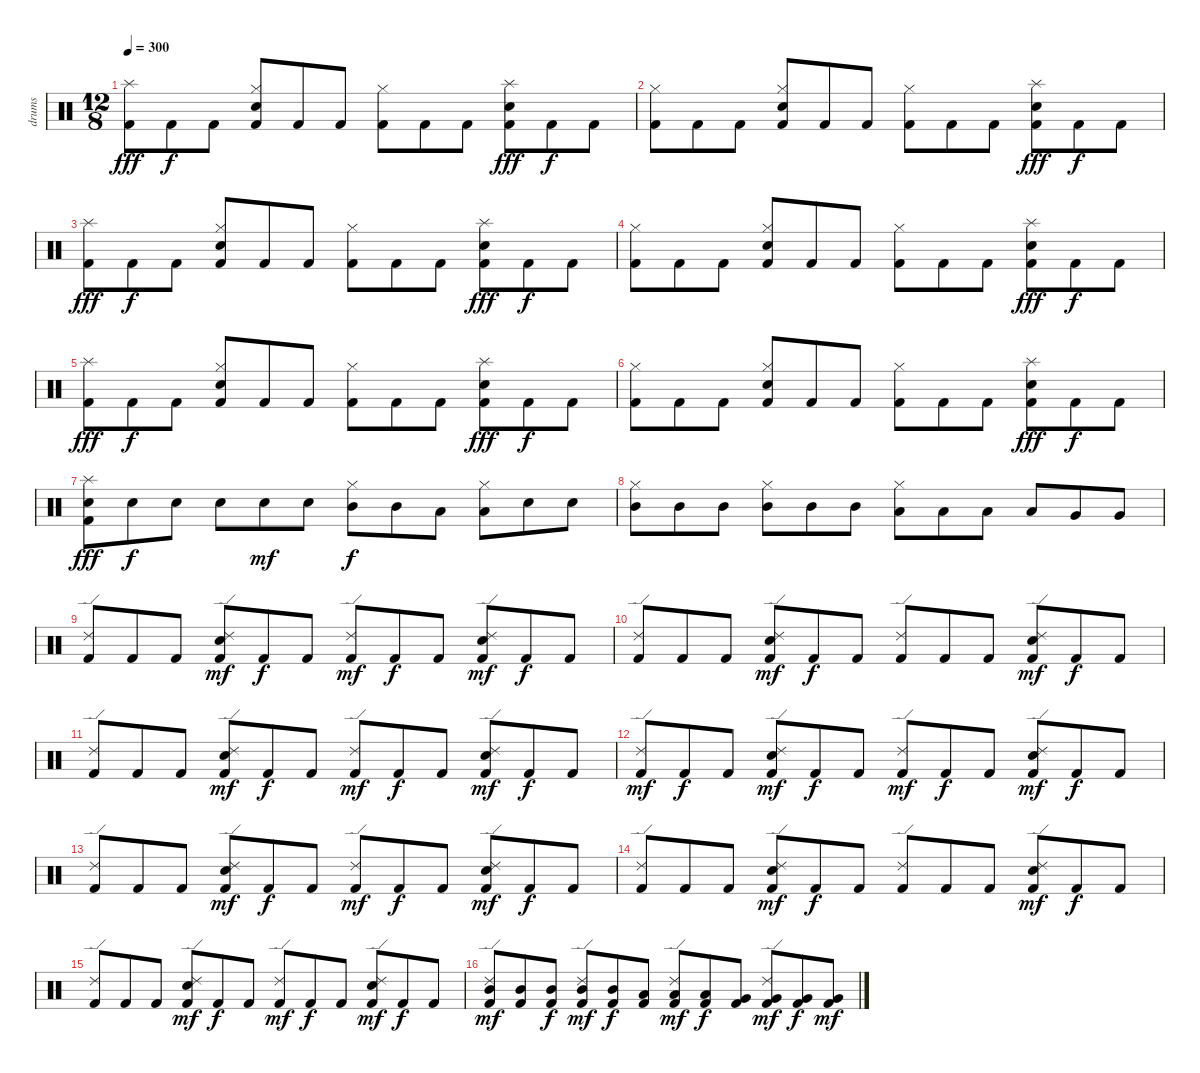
\track ("drums" "drums") {instrument percussion}
\staff {score}
\articulation defaults
\ts (12 8)
\tempo 300
\clef neutral
\ks c
("Splash (hit)" "Kick (hit) 2").8{dy fff} "Kick (hit) 2".8{dy f} "Kick (hit) 2".8 ("Hi-Hat (closed)" "Snare (hit) 2" "Kick (hit) 2").8 "Kick (hit) 2".8 "Kick (hit) 2".8 ("Hi-Hat (closed)" "Kick (hit) 2").8 "Kick (hit) 2".8 "Kick (hit) 2".8 ("Splash (hit)" "Snare (hit) 2" "Kick (hit) 2").8{dy fff} "Kick (hit) 2".8{dy f} "Kick (hit) 2".8 |
("Hi-Hat (closed)" "Kick (hit) 2").8 "Kick (hit) 2".8 "Kick (hit) 2".8 ("Hi-Hat (closed)" "Snare (hit) 2" "Kick (hit) 2").8 "Kick (hit) 2".8 "Kick (hit) 2".8 ("Hi-Hat (closed)" "Kick (hit) 2").8 "Kick (hit) 2".8 "Kick (hit) 2".8 ("Splash (hit)" "Snare (hit) 2" "Kick (hit) 2").8{dy fff} "Kick (hit) 2".8{dy f} "Kick (hit) 2".8 |
("Splash (hit)" "Kick (hit) 2").8{dy fff} "Kick (hit) 2".8{dy f} "Kick (hit) 2".8 ("Hi-Hat (closed)" "Snare (hit) 2" "Kick (hit) 2").8 "Kick (hit) 2".8 "Kick (hit) 2".8 ("Hi-Hat (closed)" "Kick (hit) 2").8 "Kick (hit) 2".8 "Kick (hit) 2".8 ("Splash (hit)" "Snare (hit) 2" "Kick (hit) 2").8{dy fff} "Kick (hit) 2".8{dy f} "Kick (hit) 2".8 |
("Hi-Hat (closed)" "Kick (hit) 2").8 "Kick (hit) 2".8 "Kick (hit) 2".8 ("Hi-Hat (closed)" "Snare (hit) 2" "Kick (hit) 2").8 "Kick (hit) 2".8 "Kick (hit) 2".8 ("Hi-Hat (closed)" "Kick (hit) 2").8 "Kick (hit) 2".8 "Kick (hit) 2".8 ("Splash (hit)" "Snare (hit) 2" "Kick (hit) 2").8{dy fff} "Kick (hit) 2".8{dy f} "Kick (hit) 2".8 |
("Splash (hit)" "Kick (hit) 2").8{dy fff} "Kick (hit) 2".8{dy f} "Kick (hit) 2".8 ("Hi-Hat (closed)" "Snare (hit) 2" "Kick (hit) 2").8 "Kick (hit) 2".8 "Kick (hit) 2".8 ("Hi-Hat (closed)" "Kick (hit) 2").8 "Kick (hit) 2".8 "Kick (hit) 2".8 ("Splash (hit)" "Snare (hit) 2" "Kick (hit) 2").8{dy fff} "Kick (hit) 2".8{dy f} "Kick (hit) 2".8 |
("Hi-Hat (closed)" "Kick (hit) 2").8 "Kick (hit) 2".8 "Kick (hit) 2".8 ("Hi-Hat (closed)" "Snare (hit) 2" "Kick (hit) 2").8 "Kick (hit) 2".8 "Kick (hit) 2".8 ("Hi-Hat (closed)" "Kick (hit) 2").8 "Kick (hit) 2".8 "Kick (hit) 2".8 ("Splash (hit)" "Snare (hit) 2" "Kick (hit) 2").8{dy fff} "Kick (hit) 2".8{dy f} "Kick (hit) 2".8 |
("Splash (hit)" "Snare (hit) 2" "Kick (hit) 2").8{dy fff} "Snare (hit) 2".8{dy f} "Snare (hit) 2".8 "Snare (hit) 2".8 "Snare (hit) 2".8{dy mf} "Snare (hit) 2".8 ("Hi-Hat (closed)" "Mid Tom (hit)").8{dy f} "Mid Tom (hit)".8 "Low Tom (hit)".8 ("Hi-Hat (closed)" "Low Tom (hit)").8 "Snare (hit) 2".8 "Snare (hit) 2".8 |
("Hi-Hat (closed)" "Mid Tom (hit)").8 "Mid Tom (hit)".8 "Mid Tom (hit)".8 ("Hi-Hat (closed)" "Mid Tom (hit)").8 "Mid Tom (hit)".8 "Mid Tom (hit)".8 ("Hi-Hat (closed)" "Low Tom (hit)").8 "Low Tom (hit)".8 "Low Tom (hit)".8 "Low Tom (hit)".8 "Very Low Tom (hit)".8 "Very Low Tom (hit)".8 |
("Ride (edge) 2" "Kick (hit) 2").8 "Kick (hit) 2".8 "Kick (hit) 2".8 ("Ride (edge) 2" "Snare (hit) 2" "Kick (hit) 2").8{dy mf} "Kick (hit) 2".8{dy f} "Kick (hit) 2".8 ("Ride (edge) 2" "Kick (hit) 2").8{dy mf} "Kick (hit) 2".8{dy f} "Kick (hit) 2".8 ("Ride (edge) 2" "Snare (hit) 2" "Kick (hit) 2").8{dy mf} "Kick (hit) 2".8{dy f} "Kick (hit) 2".8 |
("Ride (edge) 2" "Kick (hit) 2").8 "Kick (hit) 2".8 "Kick (hit) 2".8 ("Ride (edge) 2" "Snare (hit) 2" "Kick (hit) 2").8{dy mf} "Kick (hit) 2".8{dy f} "Kick (hit) 2".8 ("Ride (edge) 2" "Kick (hit) 2").8 "Kick (hit) 2".8 "Kick (hit) 2".8 ("Ride (edge) 2" "Snare (hit) 2" "Kick (hit) 2").8{dy mf} "Kick (hit) 2".8{dy f} "Kick (hit) 2".8 |
("Ride (edge) 2" "Kick (hit) 2").8 "Kick (hit) 2".8 "Kick (hit) 2".8 ("Ride (edge) 2" "Snare (hit) 2" "Kick (hit) 2").8{dy mf} "Kick (hit) 2".8{dy f} "Kick (hit) 2".8 ("Ride (edge) 2" "Kick (hit) 2").8{dy mf} "Kick (hit) 2".8{dy f} "Kick (hit) 2".8 ("Ride (edge) 2" "Snare (hit) 2" "Kick (hit) 2").8{dy mf} "Kick (hit) 2".8{dy f} "Kick (hit) 2".8 |
("Ride (edge) 2" "Kick (hit) 2").8{dy mf} "Kick (hit) 2".8{dy f} "Kick (hit) 2".8 ("Ride (edge) 2" "Snare (hit) 2" "Kick (hit) 2").8{dy mf} "Kick (hit) 2".8{dy f} "Kick (hit) 2".8 ("Ride (edge) 2" "Kick (hit) 2").8{dy mf} "Kick (hit) 2".8{dy f} "Kick (hit) 2".8 ("Ride (edge) 2" "Snare (hit) 2" "Kick (hit) 2").8{dy mf} "Kick (hit) 2".8{dy f} "Kick (hit) 2".8 |
("Ride (edge) 2" "Kick (hit) 2").8 "Kick (hit) 2".8 "Kick (hit) 2".8 ("Ride (edge) 2" "Snare (hit) 2" "Kick (hit) 2").8{dy mf} "Kick (hit) 2".8{dy f} "Kick (hit) 2".8 ("Ride (edge) 2" "Kick (hit) 2").8{dy mf} "Kick (hit) 2".8{dy f} "Kick (hit) 2".8 ("Ride (edge) 2" "Snare (hit) 2" "Kick (hit) 2").8{dy mf} "Kick (hit) 2".8{dy f} "Kick (hit) 2".8 |
("Ride (edge) 2" "Kick (hit) 2").8 "Kick (hit) 2".8 "Kick (hit) 2".8 ("Ride (edge) 2" "Snare (hit) 2" "Kick (hit) 2").8{dy mf} "Kick (hit) 2".8{dy f} "Kick (hit) 2".8 ("Ride (edge) 2" "Kick (hit) 2").8 "Kick (hit) 2".8 "Kick (hit) 2".8 ("Ride (edge) 2" "Snare (hit) 2" "Kick (hit) 2").8{dy mf} "Kick (hit) 2".8{dy f} "Kick (hit) 2".8 |
("Ride (edge) 2" "Kick (hit) 2").8 "Kick (hit) 2".8 "Kick (hit) 2".8 ("Ride (edge) 2" "Snare (hit) 2" "Kick (hit) 2").8{dy mf} "Kick (hit) 2".8{dy f} "Kick (hit) 2".8 ("Ride (edge) 2" "Kick (hit) 2").8{dy mf} "Kick (hit) 2".8{dy f} "Kick (hit) 2".8 ("Ride (edge) 2" "Snare (hit) 2" "Kick (hit) 2").8{dy mf} "Kick (hit) 2".8{dy f} "Kick (hit) 2".8 |
("Ride (edge) 2" "Mid Tom (hit)" "Kick (hit) 2").8{dy mf} ("Mid Tom (hit)" "Kick (hit) 2").8 ("Mid Tom (hit)" "Kick (hit) 2").8{dy f} ("Ride (edge) 2" "Mid Tom (hit)" "Kick (hit) 2").8{dy mf} ("Mid Tom (hit)" "Kick (hit) 2").8{dy f} ("Low Tom (hit)" "Kick (hit) 2").8 ("Ride (edge) 2" "Low Tom (hit)" "Kick (hit) 2").8{dy mf} ("Low Tom (hit)" "Kick (hit) 2").8{dy f} ("Very Low Tom (hit)" "Kick (hit) 2").8 ("Ride (edge) 2" "Very Low Tom (hit)" "Kick (hit) 2").8{dy mf} ("Very Low Tom (hit)" "Kick (hit) 2").8{dy f} ("Very Low Tom (hit)" "Kick (hit) 2").8{dy mf}
